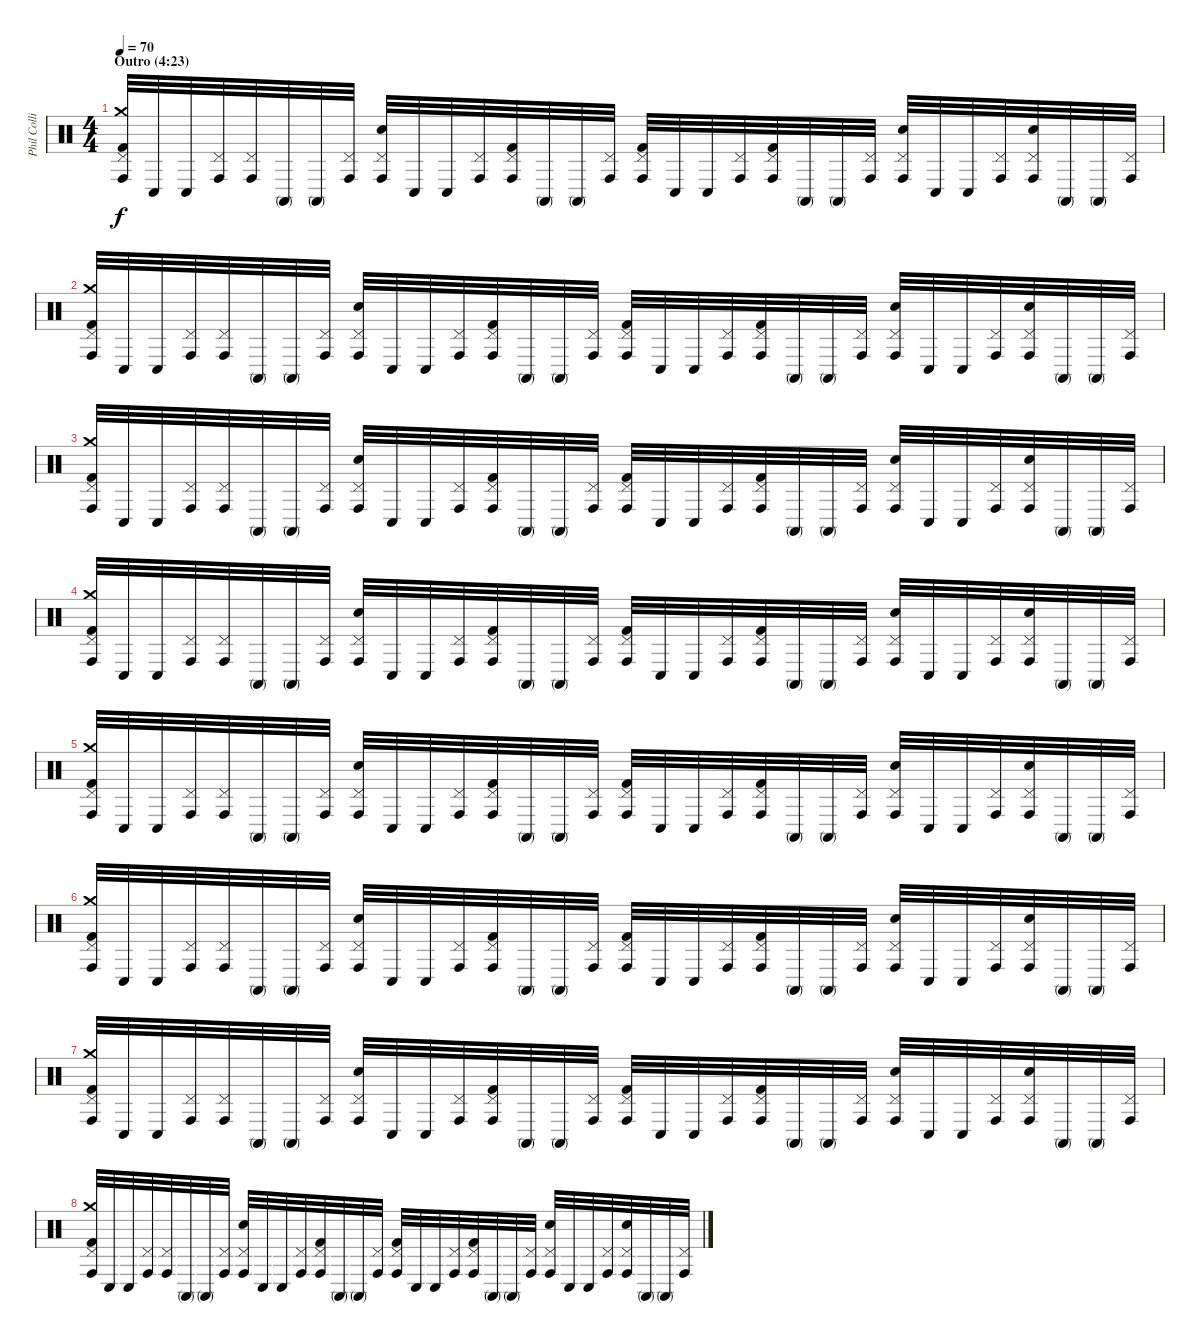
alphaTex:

\track ("Phil Collins (drums)" "Phil Colli") {instrument percussion}
\staff {score}
\articulation defaults
\ts (4 4)
\section ("" "Outro (4:23)")
\tempo 70
\clef neutral
\ks c
("Crash medium (hit)" "Conga high (hit)" "Pedal Hi-Hat (hit)" "Kick (hit) 2").32{dy f} "Conga low (hit)".32 "Conga low (hit)".32 ("Conga high (hit)" "Pedal Hi-Hat (hit)").32 ("Conga high (hit)" "Pedal Hi-Hat (hit)").32 "Conga high (mute)".32 "Conga high (mute)".32 ("Conga high (hit)" "Pedal Hi-Hat (hit)").32 ("Conga high (hit)" "Pedal Hi-Hat (hit)" "Electric Snare (hit)").32 "Conga low (hit)".32 "Conga low (hit)".32 ("Conga high (hit)" "Pedal Hi-Hat (hit)").32 ("Conga high (hit)" "Pedal Hi-Hat (hit)" "Kick (hit) 2").32 "Conga high (mute)".32 "Conga high (mute)".32 ("Conga high (hit)" "Pedal Hi-Hat (hit)").32 ("Conga high (hit)" "Pedal Hi-Hat (hit)" "Kick (hit) 2").32 "Conga low (hit)".32 "Conga low (hit)".32 ("Conga high (hit)" "Pedal Hi-Hat (hit)").32 ("Conga high (hit)" "Pedal Hi-Hat (hit)" "Kick (hit) 2").32 "Conga high (mute)".32 "Conga high (mute)".32 ("Conga high (hit)" "Pedal Hi-Hat (hit)").32 ("Conga high (hit)" "Pedal Hi-Hat (hit)" "Electric Snare (hit)").32 "Conga low (hit)".32 "Conga low (hit)".32 ("Conga high (hit)" "Pedal Hi-Hat (hit)").32 ("Conga high (hit)" "Pedal Hi-Hat (hit)" "Electric Snare (hit)").32 "Conga high (mute)".32 "Conga high (mute)".32 ("Conga high (hit)" "Pedal Hi-Hat (hit)").32 |
("Crash medium (hit)" "Conga high (hit)" "Pedal Hi-Hat (hit)" "Kick (hit) 2").32 "Conga low (hit)".32 "Conga low (hit)".32 ("Conga high (hit)" "Pedal Hi-Hat (hit)").32 ("Conga high (hit)" "Pedal Hi-Hat (hit)").32 "Conga high (mute)".32 "Conga high (mute)".32 ("Conga high (hit)" "Pedal Hi-Hat (hit)").32 ("Conga high (hit)" "Pedal Hi-Hat (hit)" "Electric Snare (hit)").32 "Conga low (hit)".32 "Conga low (hit)".32 ("Conga high (hit)" "Pedal Hi-Hat (hit)").32 ("Conga high (hit)" "Pedal Hi-Hat (hit)" "Kick (hit) 2").32 "Conga high (mute)".32 "Conga high (mute)".32 ("Conga high (hit)" "Pedal Hi-Hat (hit)").32 ("Conga high (hit)" "Pedal Hi-Hat (hit)" "Kick (hit) 2").32 "Conga low (hit)".32 "Conga low (hit)".32 ("Conga high (hit)" "Pedal Hi-Hat (hit)").32 ("Conga high (hit)" "Pedal Hi-Hat (hit)" "Kick (hit) 2").32 "Conga high (mute)".32 "Conga high (mute)".32 ("Conga high (hit)" "Pedal Hi-Hat (hit)").32 ("Conga high (hit)" "Pedal Hi-Hat (hit)" "Electric Snare (hit)").32 "Conga low (hit)".32 "Conga low (hit)".32 ("Conga high (hit)" "Pedal Hi-Hat (hit)").32 ("Conga high (hit)" "Pedal Hi-Hat (hit)" "Electric Snare (hit)").32 "Conga high (mute)".32 "Conga high (mute)".32 ("Conga high (hit)" "Pedal Hi-Hat (hit)").32 |
("Crash medium (hit)" "Conga high (hit)" "Pedal Hi-Hat (hit)" "Kick (hit) 2").32 "Conga low (hit)".32 "Conga low (hit)".32 ("Conga high (hit)" "Pedal Hi-Hat (hit)").32 ("Conga high (hit)" "Pedal Hi-Hat (hit)").32 "Conga high (mute)".32 "Conga high (mute)".32 ("Conga high (hit)" "Pedal Hi-Hat (hit)").32 ("Conga high (hit)" "Pedal Hi-Hat (hit)" "Electric Snare (hit)").32 "Conga low (hit)".32 "Conga low (hit)".32 ("Conga high (hit)" "Pedal Hi-Hat (hit)").32 ("Conga high (hit)" "Pedal Hi-Hat (hit)" "Kick (hit) 2").32 "Conga high (mute)".32 "Conga high (mute)".32 ("Conga high (hit)" "Pedal Hi-Hat (hit)").32 ("Conga high (hit)" "Pedal Hi-Hat (hit)" "Kick (hit) 2").32 "Conga low (hit)".32 "Conga low (hit)".32 ("Conga high (hit)" "Pedal Hi-Hat (hit)").32 ("Conga high (hit)" "Pedal Hi-Hat (hit)" "Kick (hit) 2").32 "Conga high (mute)".32 "Conga high (mute)".32 ("Conga high (hit)" "Pedal Hi-Hat (hit)").32 ("Conga high (hit)" "Pedal Hi-Hat (hit)" "Electric Snare (hit)").32 "Conga low (hit)".32 "Conga low (hit)".32 ("Conga high (hit)" "Pedal Hi-Hat (hit)").32 ("Conga high (hit)" "Pedal Hi-Hat (hit)" "Electric Snare (hit)").32 "Conga high (mute)".32 "Conga high (mute)".32 ("Conga high (hit)" "Pedal Hi-Hat (hit)").32 |
("Crash medium (hit)" "Conga high (hit)" "Pedal Hi-Hat (hit)" "Kick (hit) 2").32 "Conga low (hit)".32 "Conga low (hit)".32 ("Conga high (hit)" "Pedal Hi-Hat (hit)").32 ("Conga high (hit)" "Pedal Hi-Hat (hit)").32 "Conga high (mute)".32 "Conga high (mute)".32 ("Conga high (hit)" "Pedal Hi-Hat (hit)").32 ("Conga high (hit)" "Pedal Hi-Hat (hit)" "Electric Snare (hit)").32 "Conga low (hit)".32 "Conga low (hit)".32 ("Conga high (hit)" "Pedal Hi-Hat (hit)").32 ("Conga high (hit)" "Pedal Hi-Hat (hit)" "Kick (hit) 2").32 "Conga high (mute)".32 "Conga high (mute)".32 ("Conga high (hit)" "Pedal Hi-Hat (hit)").32 ("Conga high (hit)" "Pedal Hi-Hat (hit)" "Kick (hit) 2").32 "Conga low (hit)".32 "Conga low (hit)".32 ("Conga high (hit)" "Pedal Hi-Hat (hit)").32 ("Conga high (hit)" "Pedal Hi-Hat (hit)" "Kick (hit) 2").32 "Conga high (mute)".32 "Conga high (mute)".32 ("Conga high (hit)" "Pedal Hi-Hat (hit)").32 ("Conga high (hit)" "Pedal Hi-Hat (hit)" "Electric Snare (hit)").32 "Conga low (hit)".32 "Conga low (hit)".32 ("Conga high (hit)" "Pedal Hi-Hat (hit)").32 ("Conga high (hit)" "Pedal Hi-Hat (hit)" "Electric Snare (hit)").32 "Conga high (mute)".32 "Conga high (mute)".32 ("Conga high (hit)" "Pedal Hi-Hat (hit)").32 |
("Crash medium (hit)" "Conga high (hit)" "Pedal Hi-Hat (hit)" "Kick (hit) 2").32 "Conga low (hit)".32 "Conga low (hit)".32 ("Conga high (hit)" "Pedal Hi-Hat (hit)").32 ("Conga high (hit)" "Pedal Hi-Hat (hit)").32 "Conga high (mute)".32 "Conga high (mute)".32 ("Conga high (hit)" "Pedal Hi-Hat (hit)").32 ("Conga high (hit)" "Pedal Hi-Hat (hit)" "Electric Snare (hit)").32 "Conga low (hit)".32 "Conga low (hit)".32 ("Conga high (hit)" "Pedal Hi-Hat (hit)").32 ("Conga high (hit)" "Pedal Hi-Hat (hit)" "Kick (hit) 2").32 "Conga high (mute)".32 "Conga high (mute)".32 ("Conga high (hit)" "Pedal Hi-Hat (hit)").32 ("Conga high (hit)" "Pedal Hi-Hat (hit)" "Kick (hit) 2").32 "Conga low (hit)".32 "Conga low (hit)".32 ("Conga high (hit)" "Pedal Hi-Hat (hit)").32 ("Conga high (hit)" "Pedal Hi-Hat (hit)" "Kick (hit) 2").32 "Conga high (mute)".32 "Conga high (mute)".32 ("Conga high (hit)" "Pedal Hi-Hat (hit)").32 ("Conga high (hit)" "Pedal Hi-Hat (hit)" "Electric Snare (hit)").32 "Conga low (hit)".32 "Conga low (hit)".32 ("Conga high (hit)" "Pedal Hi-Hat (hit)").32 ("Conga high (hit)" "Pedal Hi-Hat (hit)" "Electric Snare (hit)").32 "Conga high (mute)".32 "Conga high (mute)".32 ("Conga high (hit)" "Pedal Hi-Hat (hit)").32 |
("Crash medium (hit)" "Conga high (hit)" "Pedal Hi-Hat (hit)" "Kick (hit) 2").32 "Conga low (hit)".32 "Conga low (hit)".32 ("Conga high (hit)" "Pedal Hi-Hat (hit)").32 ("Conga high (hit)" "Pedal Hi-Hat (hit)").32 "Conga high (mute)".32 "Conga high (mute)".32 ("Conga high (hit)" "Pedal Hi-Hat (hit)").32 ("Conga high (hit)" "Pedal Hi-Hat (hit)" "Electric Snare (hit)").32 "Conga low (hit)".32 "Conga low (hit)".32 ("Conga high (hit)" "Pedal Hi-Hat (hit)").32 ("Conga high (hit)" "Pedal Hi-Hat (hit)" "Kick (hit) 2").32 "Conga high (mute)".32 "Conga high (mute)".32 ("Conga high (hit)" "Pedal Hi-Hat (hit)").32 ("Conga high (hit)" "Pedal Hi-Hat (hit)" "Kick (hit) 2").32 "Conga low (hit)".32 "Conga low (hit)".32 ("Conga high (hit)" "Pedal Hi-Hat (hit)").32 ("Conga high (hit)" "Pedal Hi-Hat (hit)" "Kick (hit) 2").32 "Conga high (mute)".32 "Conga high (mute)".32 ("Conga high (hit)" "Pedal Hi-Hat (hit)").32 ("Conga high (hit)" "Pedal Hi-Hat (hit)" "Electric Snare (hit)").32 "Conga low (hit)".32 "Conga low (hit)".32 ("Conga high (hit)" "Pedal Hi-Hat (hit)").32 ("Conga high (hit)" "Pedal Hi-Hat (hit)" "Electric Snare (hit)").32 "Conga high (mute)".32 "Conga high (mute)".32 ("Conga high (hit)" "Pedal Hi-Hat (hit)").32 |
("Crash medium (hit)" "Conga high (hit)" "Pedal Hi-Hat (hit)" "Kick (hit) 2").32 "Conga low (hit)".32 "Conga low (hit)".32 ("Conga high (hit)" "Pedal Hi-Hat (hit)").32 ("Conga high (hit)" "Pedal Hi-Hat (hit)").32 "Conga high (mute)".32 "Conga high (mute)".32 ("Conga high (hit)" "Pedal Hi-Hat (hit)").32 ("Conga high (hit)" "Pedal Hi-Hat (hit)" "Electric Snare (hit)").32 "Conga low (hit)".32 "Conga low (hit)".32 ("Conga high (hit)" "Pedal Hi-Hat (hit)").32 ("Conga high (hit)" "Pedal Hi-Hat (hit)" "Kick (hit) 2").32 "Conga high (mute)".32 "Conga high (mute)".32 ("Conga high (hit)" "Pedal Hi-Hat (hit)").32 ("Conga high (hit)" "Pedal Hi-Hat (hit)" "Kick (hit) 2").32 "Conga low (hit)".32 "Conga low (hit)".32 ("Conga high (hit)" "Pedal Hi-Hat (hit)").32 ("Conga high (hit)" "Pedal Hi-Hat (hit)" "Kick (hit) 2").32 "Conga high (mute)".32 "Conga high (mute)".32 ("Conga high (hit)" "Pedal Hi-Hat (hit)").32 ("Conga high (hit)" "Pedal Hi-Hat (hit)" "Electric Snare (hit)").32 "Conga low (hit)".32 "Conga low (hit)".32 ("Conga high (hit)" "Pedal Hi-Hat (hit)").32 ("Conga high (hit)" "Pedal Hi-Hat (hit)" "Electric Snare (hit)").32 "Conga high (mute)".32 "Conga high (mute)".32 ("Conga high (hit)" "Pedal Hi-Hat (hit)").32 |
("Crash medium (hit)" "Conga high (hit)" "Pedal Hi-Hat (hit)" "Kick (hit) 2").32 "Conga low (hit)".32 "Conga low (hit)".32 ("Conga high (hit)" "Pedal Hi-Hat (hit)").32 ("Conga high (hit)" "Pedal Hi-Hat (hit)").32 "Conga high (mute)".32 "Conga high (mute)".32 ("Conga high (hit)" "Pedal Hi-Hat (hit)").32 ("Conga high (hit)" "Pedal Hi-Hat (hit)" "Electric Snare (hit)").32 "Conga low (hit)".32 "Conga low (hit)".32 ("Conga high (hit)" "Pedal Hi-Hat (hit)").32 ("Conga high (hit)" "Pedal Hi-Hat (hit)" "Kick (hit) 2").32 "Conga high (mute)".32 "Conga high (mute)".32 ("Conga high (hit)" "Pedal Hi-Hat (hit)").32 ("Conga high (hit)" "Pedal Hi-Hat (hit)" "Kick (hit) 2").32 "Conga low (hit)".32 "Conga low (hit)".32 ("Conga high (hit)" "Pedal Hi-Hat (hit)").32 ("Conga high (hit)" "Pedal Hi-Hat (hit)" "Kick (hit) 2").32 "Conga high (mute)".32 "Conga high (mute)".32 ("Conga high (hit)" "Pedal Hi-Hat (hit)").32 ("Conga high (hit)" "Pedal Hi-Hat (hit)" "Electric Snare (hit)").32 "Conga low (hit)".32 "Conga low (hit)".32 ("Conga high (hit)" "Pedal Hi-Hat (hit)").32 ("Conga high (hit)" "Pedal Hi-Hat (hit)" "Electric Snare (hit)").32 "Conga high (mute)".32 "Conga high (mute)".32 ("Conga high (hit)" "Pedal Hi-Hat (hit)").32
